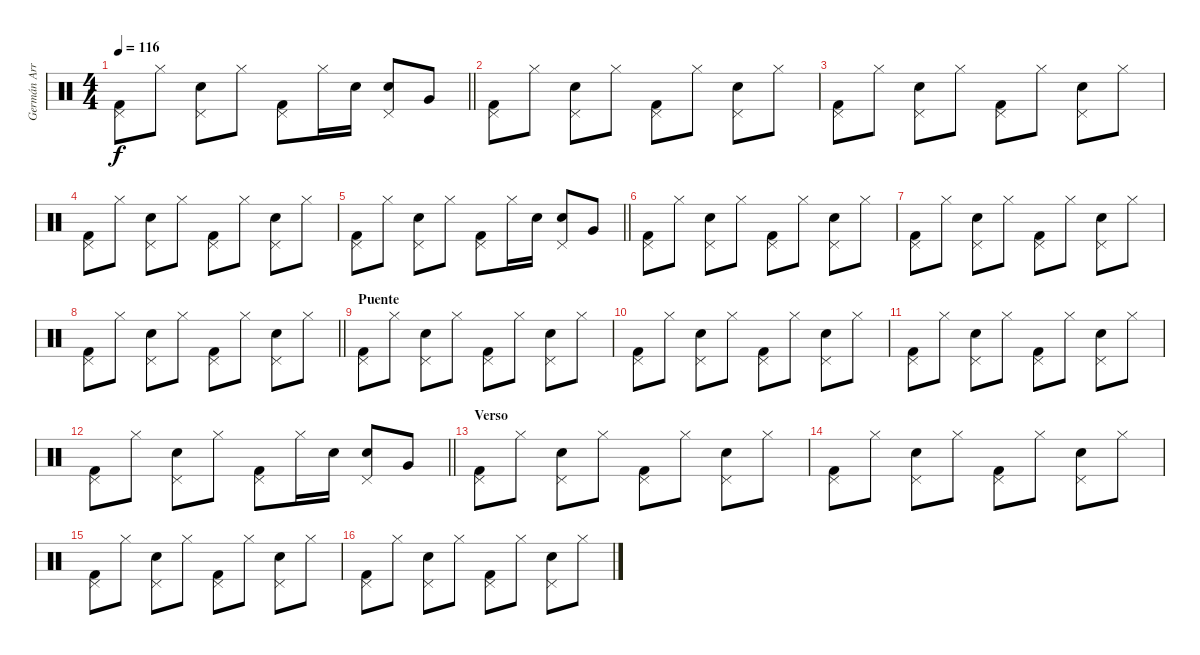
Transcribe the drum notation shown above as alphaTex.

\track ("Germán Arroyo (Batería)" "Germán Arr") {instrument percussion}
\staff {score}
\articulation defaults
\ts (4 4)
\tempo 116
\clef neutral
\barLineRight lightlight
\ks c
("Pedal Hi-Hat (hit)" "Kick (hit) 2").8{dy f} "Hi-Hat (closed)".8 ("Pedal Hi-Hat (hit)" "Snare (hit) 2").8 "Hi-Hat (closed)".8 ("Pedal Hi-Hat (hit)" "Kick (hit) 2").8 "Hi-Hat (closed)".16 "Snare (hit) 2".16 ("Pedal Hi-Hat (hit)" "Snare (hit) 2").8 "Very Low Tom (hit)".8 |
("Pedal Hi-Hat (hit)" "Kick (hit) 2").8 "Hi-Hat (closed)".8 ("Pedal Hi-Hat (hit)" "Snare (hit) 2").8 "Hi-Hat (closed)".8 ("Pedal Hi-Hat (hit)" "Kick (hit) 2").8 "Hi-Hat (closed)".8 ("Pedal Hi-Hat (hit)" "Snare (hit) 2").8 "Hi-Hat (closed)".8 |
("Pedal Hi-Hat (hit)" "Kick (hit) 2").8 "Hi-Hat (closed)".8 ("Pedal Hi-Hat (hit)" "Snare (hit) 2").8 "Hi-Hat (closed)".8 ("Pedal Hi-Hat (hit)" "Kick (hit) 2").8 "Hi-Hat (closed)".8 ("Pedal Hi-Hat (hit)" "Snare (hit) 2").8 "Hi-Hat (closed)".8 |
("Pedal Hi-Hat (hit)" "Kick (hit) 2").8 "Hi-Hat (closed)".8 ("Pedal Hi-Hat (hit)" "Snare (hit) 2").8 "Hi-Hat (closed)".8 ("Pedal Hi-Hat (hit)" "Kick (hit) 2").8 "Hi-Hat (closed)".8 ("Pedal Hi-Hat (hit)" "Snare (hit) 2").8 "Hi-Hat (closed)".8 |
\barLineRight lightlight
("Pedal Hi-Hat (hit)" "Kick (hit) 2").8 "Hi-Hat (closed)".8 ("Pedal Hi-Hat (hit)" "Snare (hit) 2").8 "Hi-Hat (closed)".8 ("Pedal Hi-Hat (hit)" "Kick (hit) 2").8 "Hi-Hat (closed)".16 "Snare (hit) 2".16 ("Pedal Hi-Hat (hit)" "Snare (hit) 2").8 "Very Low Tom (hit)".8 |
("Pedal Hi-Hat (hit)" "Kick (hit) 2").8 "Hi-Hat (closed)".8 ("Pedal Hi-Hat (hit)" "Snare (hit) 2").8 "Hi-Hat (closed)".8 ("Pedal Hi-Hat (hit)" "Kick (hit) 2").8 "Hi-Hat (closed)".8 ("Pedal Hi-Hat (hit)" "Snare (hit) 2").8 "Hi-Hat (closed)".8 |
("Pedal Hi-Hat (hit)" "Kick (hit) 2").8 "Hi-Hat (closed)".8 ("Pedal Hi-Hat (hit)" "Snare (hit) 2").8 "Hi-Hat (closed)".8 ("Pedal Hi-Hat (hit)" "Kick (hit) 2").8 "Hi-Hat (closed)".8 ("Pedal Hi-Hat (hit)" "Snare (hit) 2").8 "Hi-Hat (closed)".8 |
\barLineRight lightlight
("Pedal Hi-Hat (hit)" "Kick (hit) 2").8 "Hi-Hat (closed)".8 ("Pedal Hi-Hat (hit)" "Snare (hit) 2").8 "Hi-Hat (closed)".8 ("Pedal Hi-Hat (hit)" "Kick (hit) 2").8 "Hi-Hat (closed)".8 ("Pedal Hi-Hat (hit)" "Snare (hit) 2").8 "Hi-Hat (closed)".8 |
\section ("" "Puente")
("Pedal Hi-Hat (hit)" "Kick (hit) 2").8 "Hi-Hat (closed)".8 ("Pedal Hi-Hat (hit)" "Snare (hit) 2").8 "Hi-Hat (closed)".8 ("Pedal Hi-Hat (hit)" "Kick (hit) 2").8 "Hi-Hat (closed)".8 ("Pedal Hi-Hat (hit)" "Snare (hit) 2").8 "Hi-Hat (closed)".8 |
("Pedal Hi-Hat (hit)" "Kick (hit) 2").8 "Hi-Hat (closed)".8 ("Pedal Hi-Hat (hit)" "Snare (hit) 2").8 "Hi-Hat (closed)".8 ("Pedal Hi-Hat (hit)" "Kick (hit) 2").8 "Hi-Hat (closed)".8 ("Pedal Hi-Hat (hit)" "Snare (hit) 2").8 "Hi-Hat (closed)".8 |
("Pedal Hi-Hat (hit)" "Kick (hit) 2").8 "Hi-Hat (closed)".8 ("Pedal Hi-Hat (hit)" "Snare (hit) 2").8 "Hi-Hat (closed)".8 ("Pedal Hi-Hat (hit)" "Kick (hit) 2").8 "Hi-Hat (closed)".8 ("Pedal Hi-Hat (hit)" "Snare (hit) 2").8 "Hi-Hat (closed)".8 |
\barLineRight lightlight
("Pedal Hi-Hat (hit)" "Kick (hit) 2").8 "Hi-Hat (closed)".8 ("Pedal Hi-Hat (hit)" "Snare (hit) 2").8 "Hi-Hat (closed)".8 ("Pedal Hi-Hat (hit)" "Kick (hit) 2").8 "Hi-Hat (closed)".16 "Snare (hit) 2".16 ("Pedal Hi-Hat (hit)" "Snare (hit) 2").8 "Very Low Tom (hit)".8 |
\section ("" "Verso")
("Pedal Hi-Hat (hit)" "Kick (hit) 2").8 "Hi-Hat (closed)".8 ("Pedal Hi-Hat (hit)" "Snare (hit) 2").8 "Hi-Hat (closed)".8 ("Pedal Hi-Hat (hit)" "Kick (hit) 2").8 "Hi-Hat (closed)".8 ("Pedal Hi-Hat (hit)" "Snare (hit) 2").8 "Hi-Hat (closed)".8 |
("Pedal Hi-Hat (hit)" "Kick (hit) 2").8 "Hi-Hat (closed)".8 ("Pedal Hi-Hat (hit)" "Snare (hit) 2").8 "Hi-Hat (closed)".8 ("Pedal Hi-Hat (hit)" "Kick (hit) 2").8 "Hi-Hat (closed)".8 ("Pedal Hi-Hat (hit)" "Snare (hit) 2").8 "Hi-Hat (closed)".8 |
("Pedal Hi-Hat (hit)" "Kick (hit) 2").8 "Hi-Hat (closed)".8 ("Pedal Hi-Hat (hit)" "Snare (hit) 2").8 "Hi-Hat (closed)".8 ("Pedal Hi-Hat (hit)" "Kick (hit) 2").8 "Hi-Hat (closed)".8 ("Pedal Hi-Hat (hit)" "Snare (hit) 2").8 "Hi-Hat (closed)".8 |
("Pedal Hi-Hat (hit)" "Kick (hit) 2").8 "Hi-Hat (closed)".8 ("Pedal Hi-Hat (hit)" "Snare (hit) 2").8 "Hi-Hat (closed)".8 ("Pedal Hi-Hat (hit)" "Kick (hit) 2").8 "Hi-Hat (closed)".8 ("Pedal Hi-Hat (hit)" "Snare (hit) 2").8 "Hi-Hat (closed)".8
